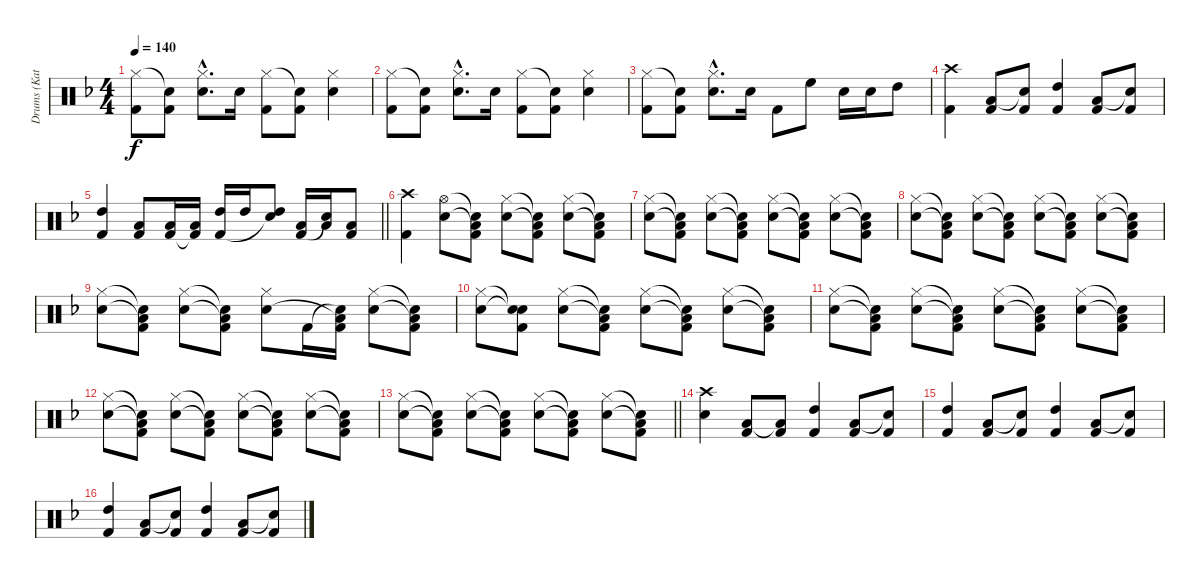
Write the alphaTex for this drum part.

\track ("Drums (Katsuji)" "Drums (Kat") {instrument percussion}
\staff {score}
\articulation defaults
\ts (4 4)
\tempo 140
\clef neutral
\ks f
("Hi-Hat (closed)" "Kick (hit) 2").8{dy f} ("Snare (hit)"{t} "Kick (hit) 2").8 ("Hi-Hat (closed)"{hac} "Snare (hit) 2"{hac}).8{d} "Snare (hit) 2".16 ("Hi-Hat (closed)" "Kick (hit) 2").8 ("Snare (hit)"{t} "Kick (hit) 2").8 ("Hi-Hat (closed)" "Snare (hit) 2").4 |
("Hi-Hat (closed)" "Kick (hit) 2").8 ("Snare (hit)"{t} "Kick (hit) 2").8 ("Hi-Hat (closed)"{hac} "Snare (hit) 2"{hac}).8{d} "Snare (hit) 2".16 ("Hi-Hat (closed)" "Kick (hit) 2").8 ("Snare (hit)"{t} "Kick (hit) 2").8 ("Hi-Hat (closed)" "Snare (hit) 2").4 |
("Hi-Hat (closed)" "Kick (hit) 2").8 ("Snare (hit)"{t} "Kick (hit) 2").8 ("Hi-Hat (closed)"{hac} "Snare (hit) 2"{hac}).8{d} "Snare (hit) 2".16 "Kick (hit) 2".8 "High Floor Tom (hit)".8 "Snare (hit) 2".16 "Snare (hit) 2".16 "High Tom (hit)".8 |
("Crash high (hit)" "Kick (hit) 2").4 ("Low Tom (hit)" "Kick (hit) 2").8 ("Snare (hit)"{t} "Kick (hit) 2").8 ("High Tom (hit)" "Kick (hit) 2").4 ("Low Tom (hit)" "Kick (hit) 2").8 ("Snare (hit)"{t} "Kick (hit) 2").8 |
\barLineRight lightlight
("High Tom (hit)" "Kick (hit) 2").4 ("Low Tom (hit)" "Kick (hit) 2").8 ("Low Tom (hit)" "Kick (hit) 2").16 ("Low Tom (hit)" "Kick (hit) 2"{t}).16 ("High Tom (hit)" "Kick (hit) 2").16 "High Tom (hit)".16 ("High Tom (hit)" "Snare (hit)"{t}).8 ("Low Tom (hit)" "Kick (hit) 2").16 ("Low Tom (hit)" "Snare (hit)"{t}).16 ("Low Tom (hit)" "Kick (hit) 2").8 |
("Crash high (hit)" "Kick (hit) 2").4 ("Hi-Hat (open)" "Snare (hit) 2").8 ("Snare (hit)"{t} "Low Floor Tom (hit)"{t} "Kick (hit) 2").8 ("Hi-Hat (closed)" "Snare (hit) 2").8 ("Snare (hit)"{t} "Low Floor Tom (hit)"{t} "Kick (hit) 2").8 ("Hi-Hat (closed)" "Snare (hit) 2").8 ("Snare (hit)"{t} "Low Floor Tom (hit)"{t} "Kick (hit) 2").8 |
("Hi-Hat (closed)" "Snare (hit) 2").8 ("Snare (hit)"{t} "Low Floor Tom (hit)"{t} "Kick (hit) 2").8 ("Hi-Hat (closed)" "Snare (hit) 2").8 ("Snare (hit)"{t} "Low Floor Tom (hit)"{t} "Kick (hit) 2").8 ("Hi-Hat (closed)" "Snare (hit) 2").8 ("Snare (hit)"{t} "Low Floor Tom (hit)"{t} "Kick (hit) 2").8 ("Hi-Hat (closed)" "Snare (hit) 2").8 ("Snare (hit)"{t} "Low Floor Tom (hit)"{t} "Kick (hit) 2").8 |
("Hi-Hat (closed)" "Snare (hit) 2").8 ("Snare (hit)"{t} "Low Floor Tom (hit)"{t} "Kick (hit) 2").8 ("Hi-Hat (closed)" "Snare (hit) 2").8 ("Snare (hit)"{t} "Low Floor Tom (hit)"{t} "Kick (hit) 2").8 ("Hi-Hat (closed)" "Snare (hit) 2").8 ("Snare (hit)"{t} "Low Floor Tom (hit)"{t} "Kick (hit) 2").8 ("Hi-Hat (closed)" "Snare (hit) 2").8 ("Snare (hit)"{t} "Low Floor Tom (hit)"{t} "Kick (hit) 2").8 |
("Hi-Hat (closed)" "Snare (hit) 2").8 ("Snare (hit)"{t} "Low Floor Tom (hit)"{t} "Kick (hit) 2").8 ("Hi-Hat (closed)" "Snare (hit) 2").8 ("Snare (hit)"{t} "Low Floor Tom (hit)"{t} "Kick (hit) 2").8 ("Hi-Hat (closed)" "Snare (hit) 2").8 "Kick (hit) 2".16 ("Snare (hit)"{t} "Low Floor Tom (hit)"{t} "Kick (hit) 2").16 ("Hi-Hat (closed)" "Snare (hit) 2").8 ("Snare (hit)"{t} "Low Floor Tom (hit)"{t} "Kick (hit) 2").8 |
("Hi-Hat (closed)" "Snare (hit) 2").8 ("Snare (hit)"{t} "Snare (hit) 2"{t} "Kick (hit) 2").8 ("Hi-Hat (closed)" "Snare (hit) 2").8 ("Snare (hit)"{t} "Low Floor Tom (hit)"{t} "Kick (hit) 2").8 ("Hi-Hat (closed)" "Snare (hit) 2").8 ("Snare (hit)"{t} "Low Floor Tom (hit)"{t} "Kick (hit) 2").8 ("Hi-Hat (closed)" "Snare (hit) 2").8 ("Snare (hit)"{t} "Low Floor Tom (hit)"{t} "Kick (hit) 2").8 |
("Hi-Hat (closed)" "Snare (hit) 2").8 ("Snare (hit)"{t} "Low Floor Tom (hit)"{t} "Kick (hit) 2").8 ("Hi-Hat (closed)" "Snare (hit) 2").8 ("Snare (hit)"{t} "Low Floor Tom (hit)"{t} "Kick (hit) 2").8 ("Hi-Hat (closed)" "Snare (hit) 2").8 ("Snare (hit)"{t} "Low Floor Tom (hit)"{t} "Kick (hit) 2").8 ("Hi-Hat (closed)" "Snare (hit) 2").8 ("Snare (hit)"{t} "Low Floor Tom (hit)"{t} "Kick (hit) 2").8 |
("Hi-Hat (closed)" "Snare (hit) 2").8 ("Snare (hit)"{t} "Low Floor Tom (hit)"{t} "Kick (hit) 2").8 ("Hi-Hat (closed)" "Snare (hit) 2").8 ("Snare (hit)"{t} "Low Floor Tom (hit)"{t} "Kick (hit) 2").8 ("Hi-Hat (closed)" "Snare (hit) 2").8 ("Snare (hit)"{t} "Low Floor Tom (hit)"{t} "Kick (hit) 2").8 ("Hi-Hat (closed)" "Snare (hit) 2").8 ("Snare (hit)"{t} "Low Floor Tom (hit)"{t} "Kick (hit) 2").8 |
\barLineRight lightlight
("Hi-Hat (closed)" "Snare (hit) 2").8 ("Snare (hit)"{t} "Low Floor Tom (hit)"{t} "Kick (hit) 2").8 ("Hi-Hat (closed)" "Snare (hit) 2").8 ("Snare (hit)"{t} "Low Floor Tom (hit)"{t} "Kick (hit) 2").8 ("Hi-Hat (closed)" "Snare (hit) 2").8 ("Snare (hit)"{t} "Low Floor Tom (hit)"{t} "Kick (hit) 2").8 ("Hi-Hat (closed)" "Snare (hit) 2").8 ("Snare (hit)"{t} "Low Floor Tom (hit)"{t} "Kick (hit) 2").8 |
("Crash high (hit)" "Snare (hit) 2").4 ("Low Tom (hit)" "Kick (hit) 2").8 ("Low Tom (hit)"{t} "Kick (hit) 2").8 ("High Tom (hit)" "Kick (hit) 2").4 ("Low Tom (hit)" "Kick (hit) 2").8 ("Snare (hit)"{t} "Kick (hit) 2").8 |
("High Tom (hit)" "Kick (hit) 2").4 ("Low Tom (hit)" "Kick (hit) 2").8 ("Snare (hit)"{t} "Kick (hit) 2").8 ("High Tom (hit)" "Kick (hit) 2").4 ("Low Tom (hit)" "Kick (hit) 2").8 ("Snare (hit)"{t} "Kick (hit) 2").8 |
("High Tom (hit)" "Kick (hit) 2").4 ("Low Tom (hit)" "Kick (hit) 2").8 ("Snare (hit)"{t} "Kick (hit) 2").8 ("High Tom (hit)" "Kick (hit) 2").4 ("Low Tom (hit)" "Kick (hit) 2").8 ("Snare (hit)"{t} "Kick (hit) 2").8
